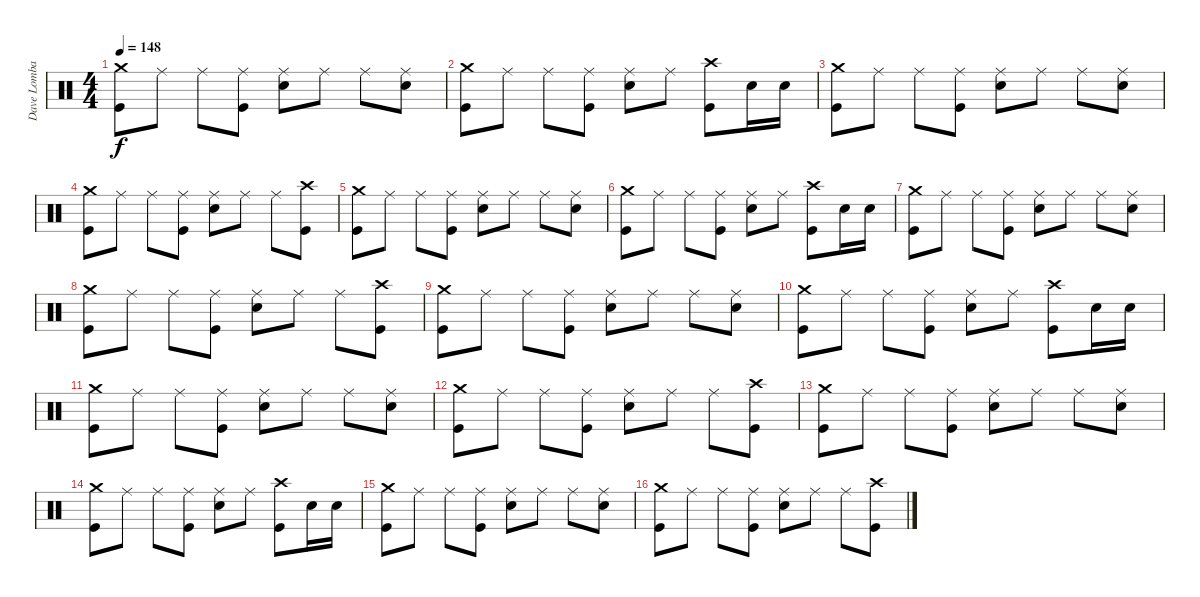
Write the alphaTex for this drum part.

\track ("Dave Lombardo (Drum)" "Dave Lomba") {instrument percussion}
\staff {score}
\articulation defaults
\ts (4 4)
\tempo 148
\clef neutral
\ks c
("Crash medium (hit)" "Kick (hit)").8{dy f} "Ride (middle)".8 "Ride (middle)".8 ("Kick (hit)" "Ride (middle)").8 ("Snare (hit) 2" "Ride (middle)").8 "Ride (middle)".8 "Ride (middle)".8 ("Snare (hit) 2" "Ride (middle)").8 |
("Crash medium (hit)" "Kick (hit)").8 "Ride (middle)".8 "Ride (middle)".8 ("Kick (hit)" "Ride (middle)").8 ("Snare (hit) 2" "Ride (middle)").8 "Ride (middle)".8 ("Crash high (hit)" "Kick (hit)").8 "Snare (hit) 2".16 "Snare (hit) 2".16 |
("Crash medium (hit)" "Kick (hit)").8 "Ride (middle)".8 "Ride (middle)".8 ("Kick (hit)" "Ride (middle)").8 ("Snare (hit) 2" "Ride (middle)").8 "Ride (middle)".8 "Ride (middle)".8 ("Snare (hit) 2" "Ride (middle)").8 |
("Crash medium (hit)" "Kick (hit)").8 "Ride (middle)".8 "Ride (middle)".8 ("Kick (hit)" "Ride (middle)").8 ("Snare (hit) 2" "Ride (middle)").8 "Ride (middle)".8 "Ride (middle)".8 ("Kick (hit)" "Crash high (hit)").8 |
("Crash medium (hit)" "Kick (hit)").8 "Ride (middle)".8 "Ride (middle)".8 ("Kick (hit)" "Ride (middle)").8 ("Snare (hit) 2" "Ride (middle)").8 "Ride (middle)".8 "Ride (middle)".8 ("Snare (hit) 2" "Ride (middle)").8 |
("Crash medium (hit)" "Kick (hit)").8 "Ride (middle)".8 "Ride (middle)".8 ("Kick (hit)" "Ride (middle)").8 ("Snare (hit) 2" "Ride (middle)").8 "Ride (middle)".8 ("Crash high (hit)" "Kick (hit)").8 "Snare (hit) 2".16 "Snare (hit) 2".16 |
("Crash medium (hit)" "Kick (hit)").8 "Ride (middle)".8 "Ride (middle)".8 ("Kick (hit)" "Ride (middle)").8 ("Snare (hit) 2" "Ride (middle)").8 "Ride (middle)".8 "Ride (middle)".8 ("Snare (hit) 2" "Ride (middle)").8 |
("Crash medium (hit)" "Kick (hit)").8 "Ride (middle)".8 "Ride (middle)".8 ("Kick (hit)" "Ride (middle)").8 ("Snare (hit) 2" "Ride (middle)").8 "Ride (middle)".8 "Ride (middle)".8 ("Kick (hit)" "Crash high (hit)").8 |
("Crash medium (hit)" "Kick (hit)").8 "Ride (middle)".8 "Ride (middle)".8 ("Kick (hit)" "Ride (middle)").8 ("Snare (hit) 2" "Ride (middle)").8 "Ride (middle)".8 "Ride (middle)".8 ("Snare (hit) 2" "Ride (middle)").8 |
("Crash medium (hit)" "Kick (hit)").8 "Ride (middle)".8 "Ride (middle)".8 ("Kick (hit)" "Ride (middle)").8 ("Snare (hit) 2" "Ride (middle)").8 "Ride (middle)".8 ("Crash high (hit)" "Kick (hit)").8 "Snare (hit) 2".16 "Snare (hit) 2".16 |
("Crash medium (hit)" "Kick (hit)").8 "Ride (middle)".8 "Ride (middle)".8 ("Kick (hit)" "Ride (middle)").8 ("Snare (hit) 2" "Ride (middle)").8 "Ride (middle)".8 "Ride (middle)".8 ("Snare (hit) 2" "Ride (middle)").8 |
("Crash medium (hit)" "Kick (hit)").8 "Ride (middle)".8 "Ride (middle)".8 ("Kick (hit)" "Ride (middle)").8 ("Snare (hit) 2" "Ride (middle)").8 "Ride (middle)".8 "Ride (middle)".8 ("Kick (hit)" "Crash high (hit)").8 |
("Crash medium (hit)" "Kick (hit)").8 "Ride (middle)".8 "Ride (middle)".8 ("Kick (hit)" "Ride (middle)").8 ("Snare (hit) 2" "Ride (middle)").8 "Ride (middle)".8 "Ride (middle)".8 ("Snare (hit) 2" "Ride (middle)").8 |
("Crash medium (hit)" "Kick (hit)").8 "Ride (middle)".8 "Ride (middle)".8 ("Kick (hit)" "Ride (middle)").8 ("Snare (hit) 2" "Ride (middle)").8 "Ride (middle)".8 ("Crash high (hit)" "Kick (hit)").8 "Snare (hit) 2".16 "Snare (hit) 2".16 |
("Crash medium (hit)" "Kick (hit)").8 "Ride (middle)".8 "Ride (middle)".8 ("Kick (hit)" "Ride (middle)").8 ("Snare (hit) 2" "Ride (middle)").8 "Ride (middle)".8 "Ride (middle)".8 ("Snare (hit) 2" "Ride (middle)").8 |
("Crash medium (hit)" "Kick (hit)").8 "Ride (middle)".8 "Ride (middle)".8 ("Kick (hit)" "Ride (middle)").8 ("Snare (hit) 2" "Ride (middle)").8 "Ride (middle)".8 "Ride (middle)".8 ("Kick (hit)" "Crash high (hit)").8
